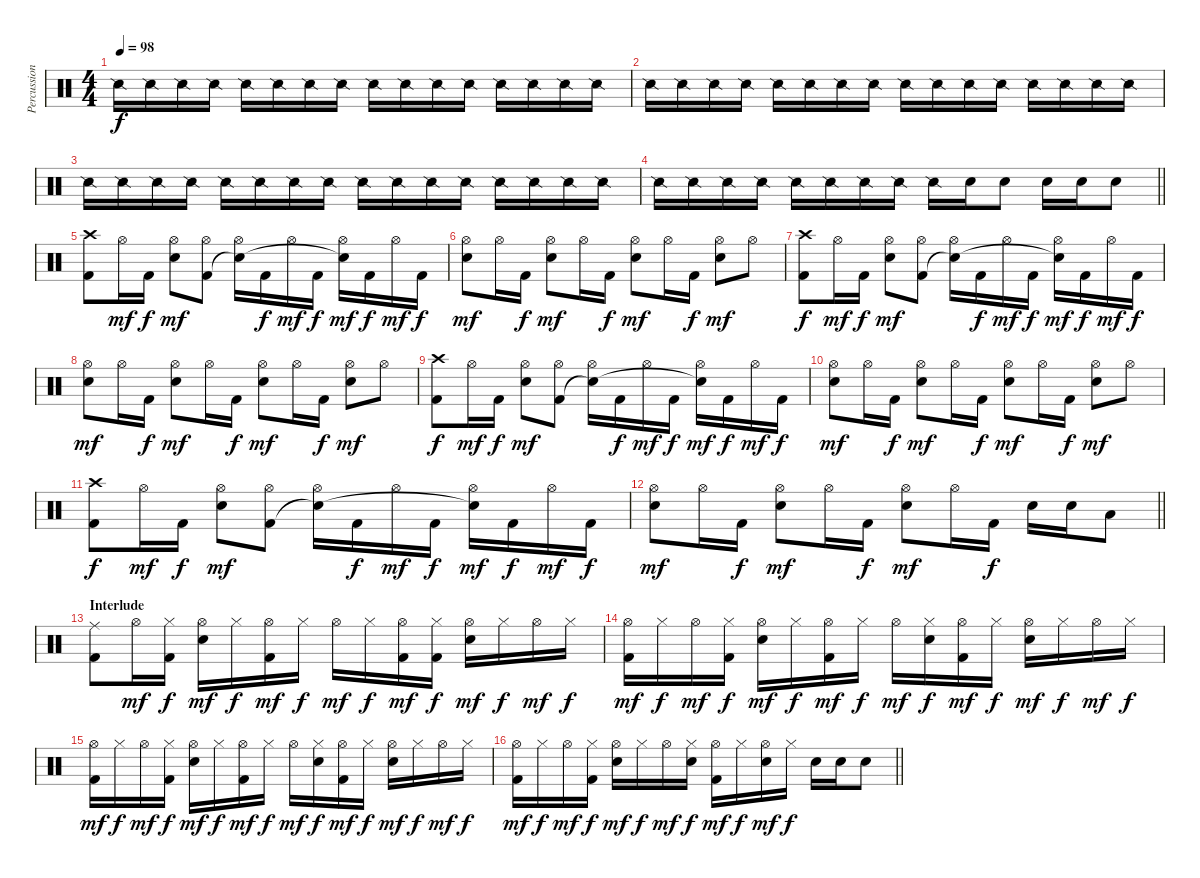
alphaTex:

\track ("Percussion" "Percussion") {instrument percussion}
\staff {score}
\articulation defaults
\ts (4 4)
\tempo 98
\clef neutral
\ks c "Snare (side stick) 2".16{dy f} "Snare (side stick) 2".16 "Snare (side stick) 2".16 "Snare (side stick) 2".16 "Snare (side stick) 2".16 "Snare (side stick) 2".16 "Snare (side stick) 2".16 "Snare (side stick) 2".16 "Snare (side stick) 2".16 "Snare (side stick) 2".16 "Snare (side stick) 2".16 "Snare (side stick) 2".16 "Snare (side stick) 2".16 "Snare (side stick) 2".16 "Snare (side stick) 2".16 "Snare (side stick) 2".16
|
"Snare (side stick) 2".16 "Snare (side stick) 2".16 "Snare (side stick) 2".16 "Snare (side stick) 2".16 "Snare (side stick) 2".16 "Snare (side stick) 2".16 "Snare (side stick) 2".16 "Snare (side stick) 2".16 "Snare (side stick) 2".16 "Snare (side stick) 2".16 "Snare (side stick) 2".16 "Snare (side stick) 2".16 "Snare (side stick) 2".16 "Snare (side stick) 2".16 "Snare (side stick) 2".16 "Snare (side stick) 2".16 |
"Snare (side stick) 2".16 "Snare (side stick) 2".16 "Snare (side stick) 2".16 "Snare (side stick) 2".16 "Snare (side stick) 2".16 "Snare (side stick) 2".16 "Snare (side stick) 2".16 "Snare (side stick) 2".16 "Snare (side stick) 2".16 "Snare (side stick) 2".16 "Snare (side stick) 2".16 "Snare (side stick) 2".16 "Snare (side stick) 2".16 "Snare (side stick) 2".16 "Snare (side stick) 2".16 "Snare (side stick) 2".16 |
\barLineRight lightlight "Snare (side stick) 2".16 "Snare (side stick) 2".16 "Snare (side stick) 2".16 "Snare (side stick) 2".16 "Snare (side stick) 2".16 "Snare (side stick) 2".16 "Snare (side stick) 2".16 "Snare (side stick) 2".16 "Snare (side stick) 2".16 "Electric Snare (hit)".16 "Electric Snare (hit)".8 "Electric Snare (hit)".16 "Electric Snare (hit)".16 "Electric Snare (hit)".8
|
("Crash high (hit)" "Kick (hit) 2").8 "Hi-Hat (open)".16{dy mf} "Kick (hit) 2".16{dy f} ("Hi-Hat (open)" "Electric Snare (hit)").8{dy mf} ("Hi-Hat (open)" "Kick (hit) 2").8 ("Hi-Hat (open)" "Snare (hit)"{t}).16 "Kick (hit) 2".16{dy f} "Hi-Hat (open)".16{dy mf} "Kick (hit) 2".16{dy f} ("Hi-Hat (open)" "Snare (hit)"{t}).16{dy mf} "Kick (hit) 2".16{dy f} "Hi-Hat (open)".16{dy mf} "Kick (hit) 2".16{dy f} |
("Hi-Hat (open)" "Electric Snare (hit)").8{dy mf} "Hi-Hat (open)".16 "Kick (hit) 2".16{dy f} ("Hi-Hat (open)" "Electric Snare (hit)").8{dy mf} "Hi-Hat (open)".16 "Kick (hit) 2".16{dy f} ("Hi-Hat (open)" "Electric Snare (hit)").8{dy mf} "Hi-Hat (open)".16 "Kick (hit) 2".16{dy f} ("Hi-Hat (open)" "Electric Snare (hit)").8{dy mf} "Hi-Hat (open)".8 |
("Crash high (hit)" "Kick (hit) 2").8{dy f} "Hi-Hat (open)".16{dy mf} "Kick (hit) 2".16{dy f} ("Hi-Hat (open)" "Electric Snare (hit)").8{dy mf} ("Hi-Hat (open)" "Kick (hit) 2").8 ("Hi-Hat (open)" "Snare (hit)"{t}).16 "Kick (hit) 2".16{dy f} "Hi-Hat (open)".16{dy mf} "Kick (hit) 2".16{dy f} ("Hi-Hat (open)" "Snare (hit)"{t}).16{dy mf} "Kick (hit) 2".16{dy f} "Hi-Hat (open)".16{dy mf} "Kick (hit) 2".16{dy f} |
("Hi-Hat (open)" "Electric Snare (hit)").8{dy mf} "Hi-Hat (open)".16 "Kick (hit) 2".16{dy f} ("Hi-Hat (open)" "Electric Snare (hit)").8{dy mf} "Hi-Hat (open)".16 "Kick (hit) 2".16{dy f} ("Hi-Hat (open)" "Electric Snare (hit)").8{dy mf} "Hi-Hat (open)".16 "Kick (hit) 2".16{dy f} ("Hi-Hat (open)" "Electric Snare (hit)").8{dy mf} "Hi-Hat (open)".8 |
("Crash high (hit)" "Kick (hit) 2").8{dy f} "Hi-Hat (open)".16{dy mf} "Kick (hit) 2".16{dy f} ("Hi-Hat (open)" "Electric Snare (hit)").8{dy mf} ("Hi-Hat (open)" "Kick (hit) 2").8 ("Hi-Hat (open)" "Snare (hit)"{t}).16 "Kick (hit) 2".16{dy f} "Hi-Hat (open)".16{dy mf} "Kick (hit) 2".16{dy f} ("Hi-Hat (open)" "Snare (hit)"{t}).16{dy mf} "Kick (hit) 2".16{dy f} "Hi-Hat (open)".16{dy mf} "Kick (hit) 2".16{dy f} |
("Hi-Hat (open)" "Electric Snare (hit)").8{dy mf} "Hi-Hat (open)".16 "Kick (hit) 2".16{dy f} ("Hi-Hat (open)" "Electric Snare (hit)").8{dy mf} "Hi-Hat (open)".16 "Kick (hit) 2".16{dy f} ("Hi-Hat (open)" "Electric Snare (hit)").8{dy mf} "Hi-Hat (open)".16 "Kick (hit) 2".16{dy f} ("Hi-Hat (open)" "Electric Snare (hit)").8{dy mf} "Hi-Hat (open)".8 |
("Crash high (hit)" "Kick (hit) 2").8{dy f} "Hi-Hat (open)".16{dy mf} "Kick (hit) 2".16{dy f} ("Hi-Hat (open)" "Electric Snare (hit)").8{dy mf} ("Hi-Hat (open)" "Kick (hit) 2").8 ("Hi-Hat (open)" "Snare (hit)"{t}).16 "Kick (hit) 2".16{dy f} "Hi-Hat (open)".16{dy mf} "Kick (hit) 2".16{dy f} ("Hi-Hat (open)" "Snare (hit)"{t}).16{dy mf} "Kick (hit) 2".16{dy f} "Hi-Hat (open)".16{dy mf} "Kick (hit) 2".16{dy f} |
\barLineRight lightlight
("Hi-Hat (open)" "Electric Snare (hit)").8{dy mf} "Hi-Hat (open)".16 "Kick (hit) 2".16{dy f} ("Hi-Hat (open)" "Electric Snare (hit)").8{dy mf} "Hi-Hat (open)".16 "Kick (hit) 2".16{dy f} ("Hi-Hat (open)" "Electric Snare (hit)").8{dy mf} "Hi-Hat (open)".16 "Kick (hit) 2".16{dy f} "Electric Snare (hit)".16 "Electric Snare (hit)".16 "Low Tom (hit)".8 |
\section ("" "Interlude")
("Ride (middle)" "Kick (hit) 2").8 "Hi-Hat (open)".16{dy mf} ("Hi-Hat (closed)" "Kick (hit) 2").16{dy f} ("Hi-Hat (open)" "Electric Snare (hit)").16{dy mf} "Hi-Hat (closed)".16{dy f} ("Hi-Hat (open)" "Kick (hit) 2").16{dy mf} "Hi-Hat (closed)".16{dy f} "Hi-Hat (open)".16{dy mf} "Hi-Hat (closed)".16{dy f} ("Hi-Hat (open)" "Kick (hit) 2").16{dy mf} ("Hi-Hat (closed)" "Kick (hit) 2").16{dy f} ("Hi-Hat (open)" "Electric Snare (hit)").16{dy mf} "Hi-Hat (closed)".16{dy f} "Hi-Hat (open)".16{dy mf} "Hi-Hat (closed)".16{dy f} |
("Hi-Hat (open)" "Kick (hit) 2").16{dy mf} "Hi-Hat (closed)".16{dy f} "Hi-Hat (open)".16{dy mf} ("Hi-Hat (closed)" "Kick (hit) 2").16{dy f} ("Hi-Hat (open)" "Electric Snare (hit)").16{dy mf} "Hi-Hat (closed)".16{dy f} ("Hi-Hat (open)" "Kick (hit) 2").16{dy mf} "Hi-Hat (closed)".16{dy f} "Hi-Hat (open)".16{dy mf} ("Hi-Hat (closed)" "Electric Snare (hit)").16{dy f} ("Hi-Hat (open)" "Kick (hit) 2").16{dy mf} "Hi-Hat (closed)".16{dy f} ("Hi-Hat (open)" "Electric Snare (hit)").16{dy mf} "Hi-Hat (closed)".16{dy f} "Hi-Hat (open)".16{dy mf} "Hi-Hat (closed)".16{dy f} |
("Hi-Hat (open)" "Kick (hit) 2").16{dy mf} "Hi-Hat (closed)".16{dy f} "Hi-Hat (open)".16{dy mf} ("Hi-Hat (closed)" "Kick (hit) 2").16{dy f} ("Hi-Hat (open)" "Electric Snare (hit)").16{dy mf} "Hi-Hat (closed)".16{dy f} ("Hi-Hat (open)" "Kick (hit) 2").16{dy mf} "Hi-Hat (closed)".16{dy f} "Hi-Hat (open)".16{dy mf} ("Hi-Hat (closed)" "Electric Snare (hit)").16{dy f} ("Hi-Hat (open)" "Kick (hit) 2").16{dy mf} "Hi-Hat (closed)".16{dy f} ("Hi-Hat (open)" "Electric Snare (hit)").16{dy mf} "Hi-Hat (closed)".16{dy f} "Hi-Hat (open)".16{dy mf} "Hi-Hat (closed)".16{dy f} |
\barLineRight lightlight
("Hi-Hat (open)" "Kick (hit) 2").16{dy mf} "Hi-Hat (closed)".16{dy f} "Hi-Hat (open)".16{dy mf} ("Hi-Hat (closed)" "Kick (hit) 2").16{dy f} ("Hi-Hat (open)" "Electric Snare (hit)").16{dy mf} "Hi-Hat (closed)".16{dy f} "Hi-Hat (open)".16{dy mf} ("Hi-Hat (closed)" "Electric Snare (hit)").16{dy f} ("Hi-Hat (open)" "Kick (hit) 2").16{dy mf} "Hi-Hat (closed)".16{dy f} ("Hi-Hat (open)" "Electric Snare (hit)").16{dy mf} "Hi-Hat (closed)".16{dy f} "Electric Snare (hit)".16 "Electric Snare (hit)".16 "Electric Snare (hit)".8
